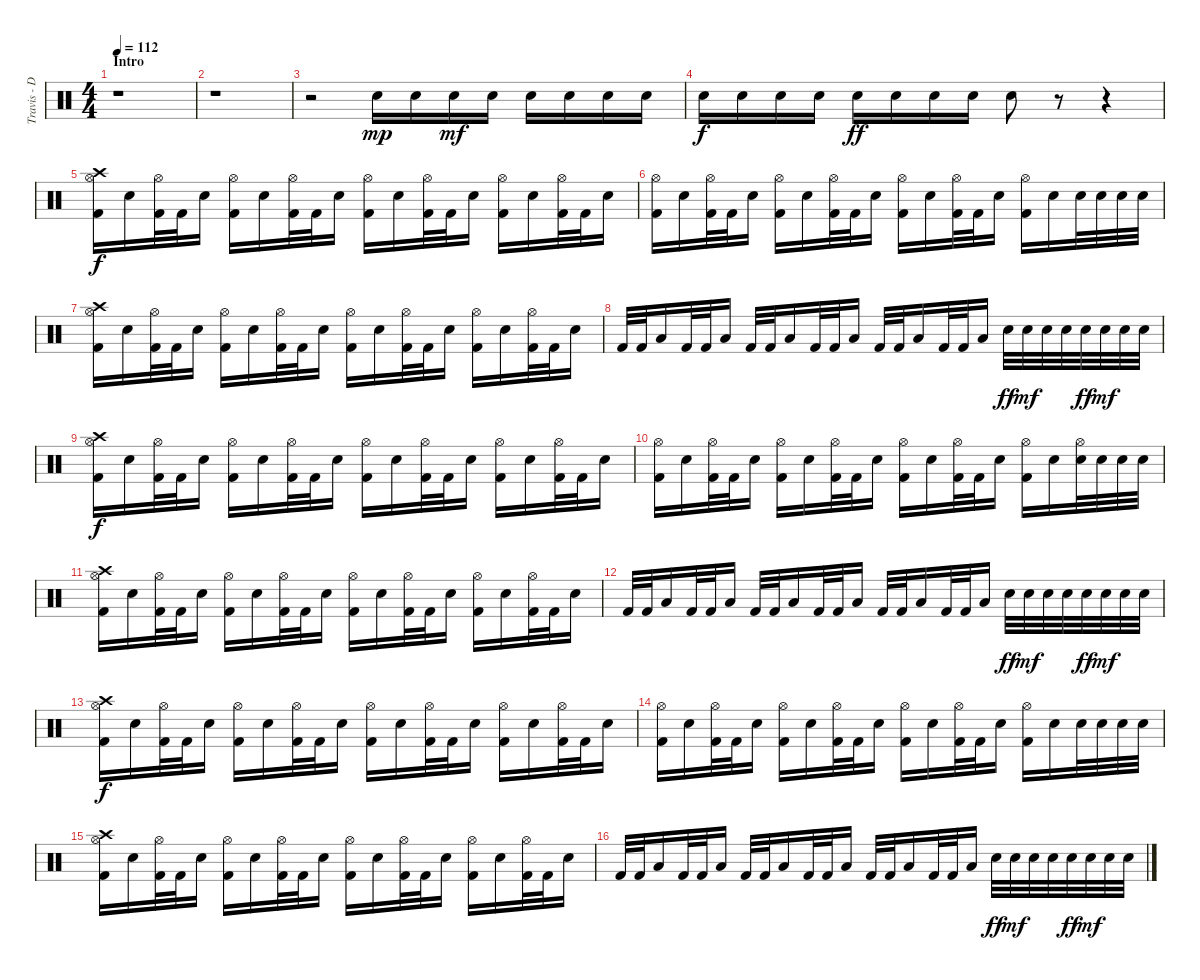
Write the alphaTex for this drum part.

\track ("Travis - Drums" "Travis - D") {instrument percussion}
\staff {score}
\articulation defaults
\ts (4 4)
\section ("" "Intro")
\tempo 112
\clef neutral
\ks c
r.1{dy mp} |
r.1 |
r.2 "Electric Snare (hit)".16 "Electric Snare (hit)".16 "Electric Snare (hit)".16{dy mf} "Electric Snare (hit)".16 "Electric Snare (hit)".16 "Electric Snare (hit)".16 "Electric Snare (hit)".16 "Electric Snare (hit)".16 |
"Electric Snare (hit)".16{dy f} "Electric Snare (hit)".16 "Electric Snare (hit)".16 "Electric Snare (hit)".16 "Electric Snare (hit)".16{dy ff} "Electric Snare (hit)".16 "Electric Snare (hit)".16 "Electric Snare (hit)".16 "Electric Snare (hit)".8 r.8 r.4 |
("Crash high (hit)" "Hi-Hat (open)" "Kick (hit) 2").16{dy f} "Electric Snare (hit)".16 ("Hi-Hat (open)" "Kick (hit) 2").32 "Kick (hit) 2".32 "Electric Snare (hit)".16 ("Hi-Hat (open)" "Kick (hit) 2").16 "Electric Snare (hit)".16 ("Hi-Hat (open)" "Kick (hit) 2").32 "Kick (hit) 2".32 "Electric Snare (hit)".16 ("Hi-Hat (open)" "Kick (hit) 2").16 "Electric Snare (hit)".16 ("Hi-Hat (open)" "Kick (hit) 2").32 "Kick (hit) 2".32 "Electric Snare (hit)".16 ("Hi-Hat (open)" "Kick (hit) 2").16 "Electric Snare (hit)".16 ("Hi-Hat (open)" "Kick (hit) 2").32 "Kick (hit) 2".32 "Electric Snare (hit)".16 |
("Hi-Hat (open)" "Kick (hit) 2").16 "Electric Snare (hit)".16 ("Hi-Hat (open)" "Kick (hit) 2").32 "Kick (hit) 2".32 "Electric Snare (hit)".16 ("Hi-Hat (open)" "Kick (hit) 2").16 "Electric Snare (hit)".16 ("Hi-Hat (open)" "Kick (hit) 2").32 "Kick (hit) 2".32 "Electric Snare (hit)".16 ("Hi-Hat (open)" "Kick (hit) 2").16 "Electric Snare (hit)".16 ("Hi-Hat (open)" "Kick (hit) 2").32 "Kick (hit) 2".32 "Electric Snare (hit)".16 ("Hi-Hat (open)" "Kick (hit) 2").16 "Electric Snare (hit)".16 "Electric Snare (hit)".32 "Electric Snare (hit)".32 "Electric Snare (hit)".32 "Electric Snare (hit)".32 |
("Crash high (hit)" "Hi-Hat (open)" "Kick (hit) 2").16 "Electric Snare (hit)".16 ("Hi-Hat (open)" "Kick (hit) 2").32 "Kick (hit) 2".32 "Electric Snare (hit)".16 ("Hi-Hat (open)" "Kick (hit) 2").16 "Electric Snare (hit)".16 ("Hi-Hat (open)" "Kick (hit) 2").32 "Kick (hit) 2".32 "Electric Snare (hit)".16 ("Hi-Hat (open)" "Kick (hit) 2").16 "Electric Snare (hit)".16 ("Hi-Hat (open)" "Kick (hit) 2").32 "Kick (hit) 2".32 "Electric Snare (hit)".16 ("Hi-Hat (open)" "Kick (hit) 2").16 "Electric Snare (hit)".16 ("Hi-Hat (open)" "Kick (hit) 2").32 "Kick (hit) 2".32 "Electric Snare (hit)".16 |
"Kick (hit) 2".32 "Kick (hit) 2".32 "Low Tom (hit)".16 "Kick (hit) 2".32 "Kick (hit) 2".32 "Low Tom (hit)".16 "Kick (hit) 2".32 "Kick (hit) 2".32 "Low Tom (hit)".16 "Kick (hit) 2".32 "Kick (hit) 2".32 "Low Tom (hit)".16 "Kick (hit) 2".32 "Kick (hit) 2".32 "Low Tom (hit)".16 "Kick (hit) 2".32 "Kick (hit) 2".32 "Low Tom (hit)".16 "Electric Snare (hit)".32{dy ff} "Electric Snare (hit)".32{dy mf} "Electric Snare (hit)".32 "Electric Snare (hit)".32 "Electric Snare (hit)".32{dy ff} "Electric Snare (hit)".32{dy mf} "Electric Snare (hit)".32 "Electric Snare (hit)".32 |
("Crash high (hit)" "Hi-Hat (open)" "Kick (hit) 2").16{dy f} "Electric Snare (hit)".16 ("Hi-Hat (open)" "Kick (hit) 2").32 "Kick (hit) 2".32 "Electric Snare (hit)".16 ("Hi-Hat (open)" "Kick (hit) 2").16 "Electric Snare (hit)".16 ("Hi-Hat (open)" "Kick (hit) 2").32 "Kick (hit) 2".32 "Electric Snare (hit)".16 ("Hi-Hat (open)" "Kick (hit) 2").16 "Electric Snare (hit)".16 ("Hi-Hat (open)" "Kick (hit) 2").32 "Kick (hit) 2".32 "Electric Snare (hit)".16 ("Hi-Hat (open)" "Kick (hit) 2").16 "Electric Snare (hit)".16 ("Hi-Hat (open)" "Kick (hit) 2").32 "Kick (hit) 2".32 "Electric Snare (hit)".16 |
("Hi-Hat (open)" "Kick (hit) 2").16 "Electric Snare (hit)".16 ("Hi-Hat (open)" "Kick (hit) 2").32 "Kick (hit) 2".32 "Electric Snare (hit)".16 ("Hi-Hat (open)" "Kick (hit) 2").16 "Electric Snare (hit)".16 ("Hi-Hat (open)" "Kick (hit) 2").32 "Kick (hit) 2".32 "Electric Snare (hit)".16 ("Hi-Hat (open)" "Kick (hit) 2").16 "Electric Snare (hit)".16 ("Hi-Hat (open)" "Kick (hit) 2").32 "Kick (hit) 2".32 "Electric Snare (hit)".16 ("Hi-Hat (open)" "Kick (hit) 2").16 "Electric Snare (hit)".16 ("Hi-Hat (open)" "Electric Snare (hit)").32 "Electric Snare (hit)".32 "Electric Snare (hit)".32 "Electric Snare (hit)".32 |
("Crash high (hit)" "Hi-Hat (open)" "Kick (hit) 2").16 "Electric Snare (hit)".16 ("Hi-Hat (open)" "Kick (hit) 2").32 "Kick (hit) 2".32 "Electric Snare (hit)".16 ("Hi-Hat (open)" "Kick (hit) 2").16 "Electric Snare (hit)".16 ("Hi-Hat (open)" "Kick (hit) 2").32 "Kick (hit) 2".32 "Electric Snare (hit)".16 ("Hi-Hat (open)" "Kick (hit) 2").16 "Electric Snare (hit)".16 ("Hi-Hat (open)" "Kick (hit) 2").32 "Kick (hit) 2".32 "Electric Snare (hit)".16 ("Hi-Hat (open)" "Kick (hit) 2").16 "Electric Snare (hit)".16 ("Hi-Hat (open)" "Kick (hit) 2").32 "Kick (hit) 2".32 "Electric Snare (hit)".16 |
"Kick (hit) 2".32 "Kick (hit) 2".32 "Low Tom (hit)".16 "Kick (hit) 2".32 "Kick (hit) 2".32 "Low Tom (hit)".16 "Kick (hit) 2".32 "Kick (hit) 2".32 "Low Tom (hit)".16 "Kick (hit) 2".32 "Kick (hit) 2".32 "Low Tom (hit)".16 "Kick (hit) 2".32 "Kick (hit) 2".32 "Low Tom (hit)".16 "Kick (hit) 2".32 "Kick (hit) 2".32 "Low Tom (hit)".16 "Electric Snare (hit)".32{dy ff} "Electric Snare (hit)".32{dy mf} "Electric Snare (hit)".32 "Electric Snare (hit)".32 "Electric Snare (hit)".32{dy ff} "Electric Snare (hit)".32{dy mf} "Electric Snare (hit)".32 "Electric Snare (hit)".32 |
("Crash high (hit)" "Hi-Hat (open)" "Kick (hit) 2").16{dy f} "Electric Snare (hit)".16 ("Hi-Hat (open)" "Kick (hit) 2").32 "Kick (hit) 2".32 "Electric Snare (hit)".16 ("Hi-Hat (open)" "Kick (hit) 2").16 "Electric Snare (hit)".16 ("Hi-Hat (open)" "Kick (hit) 2").32 "Kick (hit) 2".32 "Electric Snare (hit)".16 ("Hi-Hat (open)" "Kick (hit) 2").16 "Electric Snare (hit)".16 ("Hi-Hat (open)" "Kick (hit) 2").32 "Kick (hit) 2".32 "Electric Snare (hit)".16 ("Hi-Hat (open)" "Kick (hit) 2").16 "Electric Snare (hit)".16 ("Hi-Hat (open)" "Kick (hit) 2").32 "Kick (hit) 2".32 "Electric Snare (hit)".16 |
("Hi-Hat (open)" "Kick (hit) 2").16 "Electric Snare (hit)".16 ("Hi-Hat (open)" "Kick (hit) 2").32 "Kick (hit) 2".32 "Electric Snare (hit)".16 ("Hi-Hat (open)" "Kick (hit) 2").16 "Electric Snare (hit)".16 ("Hi-Hat (open)" "Kick (hit) 2").32 "Kick (hit) 2".32 "Electric Snare (hit)".16 ("Hi-Hat (open)" "Kick (hit) 2").16 "Electric Snare (hit)".16 ("Hi-Hat (open)" "Kick (hit) 2").32 "Kick (hit) 2".32 "Electric Snare (hit)".16 ("Hi-Hat (open)" "Kick (hit) 2").16 "Electric Snare (hit)".16 "Electric Snare (hit)".32 "Electric Snare (hit)".32 "Electric Snare (hit)".32 "Electric Snare (hit)".32 |
("Crash high (hit)" "Hi-Hat (open)" "Kick (hit) 2").16 "Electric Snare (hit)".16 ("Hi-Hat (open)" "Kick (hit) 2").32 "Kick (hit) 2".32 "Electric Snare (hit)".16 ("Hi-Hat (open)" "Kick (hit) 2").16 "Electric Snare (hit)".16 ("Hi-Hat (open)" "Kick (hit) 2").32 "Kick (hit) 2".32 "Electric Snare (hit)".16 ("Hi-Hat (open)" "Kick (hit) 2").16 "Electric Snare (hit)".16 ("Hi-Hat (open)" "Kick (hit) 2").32 "Kick (hit) 2".32 "Electric Snare (hit)".16 ("Hi-Hat (open)" "Kick (hit) 2").16 "Electric Snare (hit)".16 ("Hi-Hat (open)" "Kick (hit) 2").32 "Kick (hit) 2".32 "Electric Snare (hit)".16 |
"Kick (hit) 2".32 "Kick (hit) 2".32 "Low Tom (hit)".16 "Kick (hit) 2".32 "Kick (hit) 2".32 "Low Tom (hit)".16 "Kick (hit) 2".32 "Kick (hit) 2".32 "Low Tom (hit)".16 "Kick (hit) 2".32 "Kick (hit) 2".32 "Low Tom (hit)".16 "Kick (hit) 2".32 "Kick (hit) 2".32 "Low Tom (hit)".16 "Kick (hit) 2".32 "Kick (hit) 2".32 "Low Tom (hit)".16 "Electric Snare (hit)".32{dy ff} "Electric Snare (hit)".32{dy mf} "Electric Snare (hit)".32 "Electric Snare (hit)".32 "Electric Snare (hit)".32{dy ff} "Electric Snare (hit)".32{dy mf} "Electric Snare (hit)".32 "Electric Snare (hit)".32
